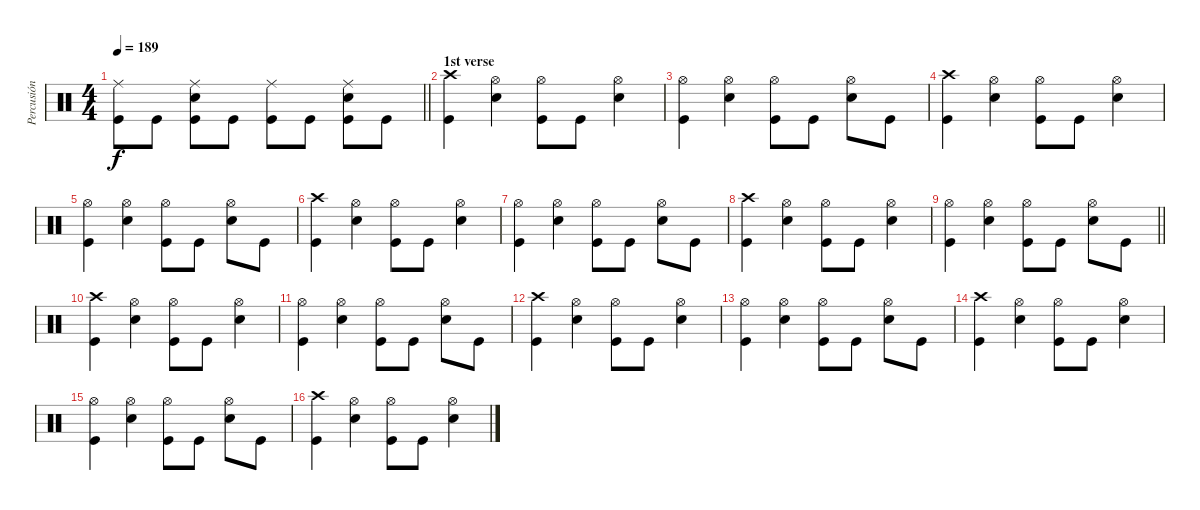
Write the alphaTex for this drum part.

\track ("Percusión" "Percusión") {instrument percussion}
\staff {score}
\articulation defaults
\ts (4 4)
\tempo 189
\clef neutral
\barLineRight lightlight
\ks c
("Ride (middle)" "Kick (hit)").8{dy f} "Kick (hit)".8 ("Ride (middle)" "Electric Snare (hit)" "Kick (hit)").8 "Kick (hit)".8 ("Ride (middle)" "Kick (hit)").8 "Kick (hit)".8 ("Ride (middle)" "Electric Snare (hit)" "Kick (hit)").8 "Kick (hit)".8 |
\section ("" "1st verse")
("Crash high (hit)" "Kick (hit)").4 ("Hi-Hat (open)" "Electric Snare (hit)").4 ("Hi-Hat (open)" "Kick (hit)").8 "Kick (hit)".8 ("Hi-Hat (open)" "Electric Snare (hit)").4 |
("Hi-Hat (open)" "Kick (hit)").4 ("Hi-Hat (open)" "Electric Snare (hit)").4 ("Hi-Hat (open)" "Kick (hit)").8 "Kick (hit)".8 ("Hi-Hat (open)" "Electric Snare (hit)").8 "Kick (hit)".8 |
("Crash high (hit)" "Kick (hit)").4 ("Hi-Hat (open)" "Electric Snare (hit)").4 ("Hi-Hat (open)" "Kick (hit)").8 "Kick (hit)".8 ("Hi-Hat (open)" "Electric Snare (hit)").4 |
("Hi-Hat (open)" "Kick (hit)").4 ("Hi-Hat (open)" "Electric Snare (hit)").4 ("Hi-Hat (open)" "Kick (hit)").8 "Kick (hit)".8 ("Hi-Hat (open)" "Electric Snare (hit)").8 "Kick (hit)".8 |
("Crash high (hit)" "Kick (hit)").4 ("Hi-Hat (open)" "Electric Snare (hit)").4 ("Hi-Hat (open)" "Kick (hit)").8 "Kick (hit)".8 ("Hi-Hat (open)" "Electric Snare (hit)").4 |
("Hi-Hat (open)" "Kick (hit)").4 ("Hi-Hat (open)" "Electric Snare (hit)").4 ("Hi-Hat (open)" "Kick (hit)").8 "Kick (hit)".8 ("Hi-Hat (open)" "Electric Snare (hit)").8 "Kick (hit)".8 |
("Crash high (hit)" "Kick (hit)").4 ("Hi-Hat (open)" "Electric Snare (hit)").4 ("Hi-Hat (open)" "Kick (hit)").8 "Kick (hit)".8 ("Hi-Hat (open)" "Electric Snare (hit)").4 |
\barLineRight lightlight
("Hi-Hat (open)" "Kick (hit)").4 ("Hi-Hat (open)" "Electric Snare (hit)").4 ("Hi-Hat (open)" "Kick (hit)").8 "Kick (hit)".8 ("Hi-Hat (open)" "Electric Snare (hit)").8 "Kick (hit)".8 |
("Crash high (hit)" "Kick (hit)").4 ("Hi-Hat (open)" "Electric Snare (hit)").4 ("Hi-Hat (open)" "Kick (hit)").8 "Kick (hit)".8 ("Hi-Hat (open)" "Electric Snare (hit)").4 |
("Hi-Hat (open)" "Kick (hit)").4 ("Hi-Hat (open)" "Electric Snare (hit)").4 ("Hi-Hat (open)" "Kick (hit)").8 "Kick (hit)".8 ("Hi-Hat (open)" "Electric Snare (hit)").8 "Kick (hit)".8 |
("Crash high (hit)" "Kick (hit)").4 ("Hi-Hat (open)" "Electric Snare (hit)").4 ("Hi-Hat (open)" "Kick (hit)").8 "Kick (hit)".8 ("Hi-Hat (open)" "Electric Snare (hit)").4 |
("Hi-Hat (open)" "Kick (hit)").4 ("Hi-Hat (open)" "Electric Snare (hit)").4 ("Hi-Hat (open)" "Kick (hit)").8 "Kick (hit)".8 ("Hi-Hat (open)" "Electric Snare (hit)").8 "Kick (hit)".8 |
("Crash high (hit)" "Kick (hit)").4 ("Hi-Hat (open)" "Electric Snare (hit)").4 ("Hi-Hat (open)" "Kick (hit)").8 "Kick (hit)".8 ("Hi-Hat (open)" "Electric Snare (hit)").4 |
("Hi-Hat (open)" "Kick (hit)").4 ("Hi-Hat (open)" "Electric Snare (hit)").4 ("Hi-Hat (open)" "Kick (hit)").8 "Kick (hit)".8 ("Hi-Hat (open)" "Electric Snare (hit)").8 "Kick (hit)".8 |
("Crash high (hit)" "Kick (hit)").4 ("Hi-Hat (open)" "Electric Snare (hit)").4 ("Hi-Hat (open)" "Kick (hit)").8 "Kick (hit)".8 ("Hi-Hat (open)" "Electric Snare (hit)").4
